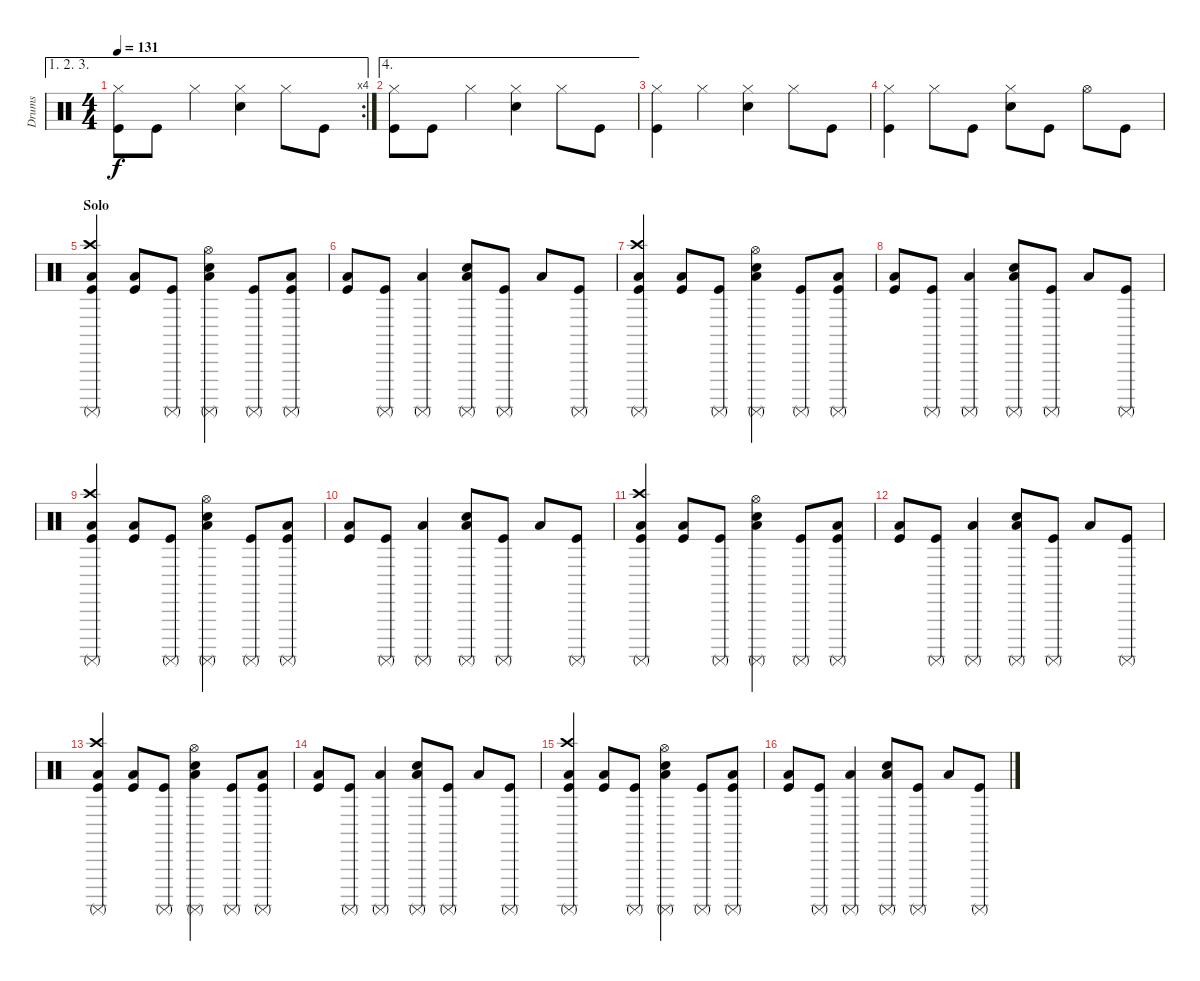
\track ("Drums" "Drums") {instrument percussion}
\staff {score}
\articulation defaults
\ae (1 2 3)
\rc 4
\ts (4 4)
\tempo 131
\clef neutral
\ks c
("Hi-Hat (closed)" "Kick (hit)").8{dy f} "Kick (hit)".8 "Hi-Hat (closed)".4 ("Hi-Hat (closed)" "Snare (hit) 2").4 "Hi-Hat (closed)".8 "Kick (hit)".8 |
\ae 4
("Hi-Hat (closed)" "Kick (hit)").8 "Kick (hit)".8 "Hi-Hat (closed)".4 ("Hi-Hat (closed)" "Snare (hit) 2").4 "Hi-Hat (closed)".8 "Kick (hit)".8 |
("Hi-Hat (closed)" "Kick (hit)").4 "Hi-Hat (closed)".4 ("Hi-Hat (closed)" "Snare (hit) 2").4 "Hi-Hat (closed)".8 "Kick (hit)".8 |
("Hi-Hat (closed)" "Kick (hit)").4 "Hi-Hat (closed)".8 "Kick (hit)".8 ("Hi-Hat (closed)" "Snare (hit) 2").8 "Kick (hit)".8 "Hi-Hat (open)".8 "Kick (hit)".8 |
\section ("" "Solo")
("Crash high (hit)" "Surdo (mute)" "Low Floor Tom (hit)" "Kick (hit)").4 ("Low Floor Tom (hit)" "Kick (hit)").8 ("Surdo (mute)" "Kick (hit)").8 ("Hi-Hat (open)" "Surdo (mute)" "Low Floor Tom (hit)" "Snare (hit) 2").4 ("Surdo (mute)" "Kick (hit)").8 ("Surdo (mute)" "Low Floor Tom (hit)" "Kick (hit)").8 |
("Low Floor Tom (hit)" "Kick (hit)").8 ("Surdo (mute)" "Kick (hit)").8 ("Surdo (mute)" "Low Floor Tom (hit)").4 ("Surdo (mute)" "Low Floor Tom (hit)" "Snare (hit) 2").8 ("Surdo (mute)" "Kick (hit)").8 "Low Floor Tom (hit)".8 ("Surdo (mute)" "Kick (hit)").8 |
("Crash high (hit)" "Surdo (mute)" "Low Floor Tom (hit)" "Kick (hit)").4 ("Low Floor Tom (hit)" "Kick (hit)").8 ("Surdo (mute)" "Kick (hit)").8 ("Hi-Hat (open)" "Surdo (mute)" "Low Floor Tom (hit)" "Snare (hit) 2").4 ("Surdo (mute)" "Kick (hit)").8 ("Surdo (mute)" "Low Floor Tom (hit)" "Kick (hit)").8 |
("Low Floor Tom (hit)" "Kick (hit)").8 ("Surdo (mute)" "Kick (hit)").8 ("Surdo (mute)" "Low Floor Tom (hit)").4 ("Surdo (mute)" "Low Floor Tom (hit)" "Snare (hit) 2").8 ("Surdo (mute)" "Kick (hit)").8 "Low Floor Tom (hit)".8 ("Surdo (mute)" "Kick (hit)").8 |
("Crash high (hit)" "Surdo (mute)" "Low Floor Tom (hit)" "Kick (hit)").4 ("Low Floor Tom (hit)" "Kick (hit)").8 ("Surdo (mute)" "Kick (hit)").8 ("Hi-Hat (open)" "Surdo (mute)" "Low Floor Tom (hit)" "Snare (hit) 2").4 ("Surdo (mute)" "Kick (hit)").8 ("Surdo (mute)" "Low Floor Tom (hit)" "Kick (hit)").8 |
("Low Floor Tom (hit)" "Kick (hit)").8 ("Surdo (mute)" "Kick (hit)").8 ("Surdo (mute)" "Low Floor Tom (hit)").4 ("Surdo (mute)" "Low Floor Tom (hit)" "Snare (hit) 2").8 ("Surdo (mute)" "Kick (hit)").8 "Low Floor Tom (hit)".8 ("Surdo (mute)" "Kick (hit)").8 |
("Crash high (hit)" "Surdo (mute)" "Low Floor Tom (hit)" "Kick (hit)").4 ("Low Floor Tom (hit)" "Kick (hit)").8 ("Surdo (mute)" "Kick (hit)").8 ("Hi-Hat (open)" "Surdo (mute)" "Low Floor Tom (hit)" "Snare (hit) 2").4 ("Surdo (mute)" "Kick (hit)").8 ("Surdo (mute)" "Low Floor Tom (hit)" "Kick (hit)").8 |
("Low Floor Tom (hit)" "Kick (hit)").8 ("Surdo (mute)" "Kick (hit)").8 ("Surdo (mute)" "Low Floor Tom (hit)").4 ("Surdo (mute)" "Low Floor Tom (hit)" "Snare (hit) 2").8 ("Surdo (mute)" "Kick (hit)").8 "Low Floor Tom (hit)".8 ("Surdo (mute)" "Kick (hit)").8 |
("Crash high (hit)" "Surdo (mute)" "Low Floor Tom (hit)" "Kick (hit)").4 ("Low Floor Tom (hit)" "Kick (hit)").8 ("Surdo (mute)" "Kick (hit)").8 ("Hi-Hat (open)" "Surdo (mute)" "Low Floor Tom (hit)" "Snare (hit) 2").4 ("Surdo (mute)" "Kick (hit)").8 ("Surdo (mute)" "Low Floor Tom (hit)" "Kick (hit)").8 |
("Low Floor Tom (hit)" "Kick (hit)").8 ("Surdo (mute)" "Kick (hit)").8 ("Surdo (mute)" "Low Floor Tom (hit)").4 ("Surdo (mute)" "Low Floor Tom (hit)" "Snare (hit) 2").8 ("Surdo (mute)" "Kick (hit)").8 "Low Floor Tom (hit)".8 ("Surdo (mute)" "Kick (hit)").8 |
("Crash high (hit)" "Surdo (mute)" "Low Floor Tom (hit)" "Kick (hit)").4 ("Low Floor Tom (hit)" "Kick (hit)").8 ("Surdo (mute)" "Kick (hit)").8 ("Hi-Hat (open)" "Surdo (mute)" "Low Floor Tom (hit)" "Snare (hit) 2").4 ("Surdo (mute)" "Kick (hit)").8 ("Surdo (mute)" "Low Floor Tom (hit)" "Kick (hit)").8 |
("Low Floor Tom (hit)" "Kick (hit)").8 ("Surdo (mute)" "Kick (hit)").8 ("Surdo (mute)" "Low Floor Tom (hit)").4 ("Surdo (mute)" "Low Floor Tom (hit)" "Snare (hit) 2").8 ("Surdo (mute)" "Kick (hit)").8 "Low Floor Tom (hit)".8 ("Surdo (mute)" "Kick (hit)").8
